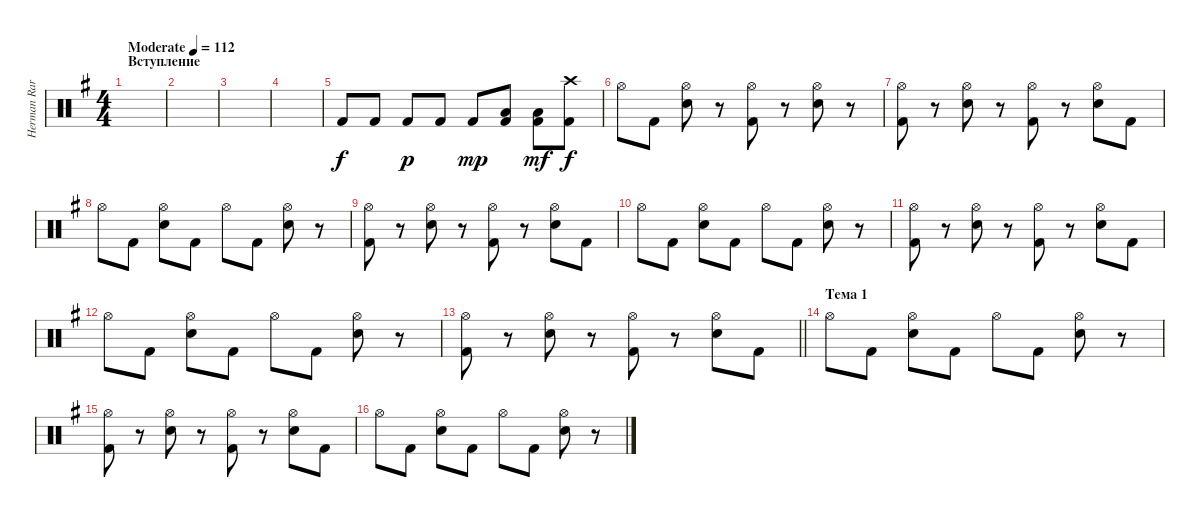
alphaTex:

\track ("Herman Rarebell" "Herman Rar") {instrument percussion}
\staff {score}
\articulation defaults
\ts (4 4)
\section ("" "Вступление")
\tempo (112 "Moderate")
\clef neutral
\ks eminor
|
|
|
|
"Kick (hit) 2".8 "Kick (hit) 2".8 "Kick (hit) 2".8{dy p} "Kick (hit) 2".8 "Kick (hit) 2".8{dy mp} ("Low Tom (hit)" "Kick (hit) 2").8 ("Low Tom (hit)" "Kick (hit) 2").8{dy mf} ("Crash high (hit)" "Kick (hit) 2").8{dy f} |
"Hi-Hat (open)".8 "Kick (hit) 2".8 ("Hi-Hat (open)" "Electric Snare (hit)").8 r.8 ("Hi-Hat (open)" "Kick (hit) 2").8 r.8 ("Hi-Hat (open)" "Electric Snare (hit)").8 r.8 |
("Hi-Hat (open)" "Kick (hit) 2").8 r.8 ("Hi-Hat (open)" "Electric Snare (hit)").8 r.8 ("Hi-Hat (open)" "Kick (hit) 2").8 r.8 ("Hi-Hat (open)" "Electric Snare (hit)").8 "Kick (hit) 2".8 |
"Hi-Hat (open)".8 "Kick (hit) 2".8 ("Hi-Hat (open)" "Electric Snare (hit)").8 "Kick (hit) 2".8 "Hi-Hat (open)".8 "Kick (hit) 2".8 ("Hi-Hat (open)" "Electric Snare (hit)").8 r.8 |
("Hi-Hat (open)" "Kick (hit) 2").8 r.8 ("Hi-Hat (open)" "Electric Snare (hit)").8 r.8 ("Hi-Hat (open)" "Kick (hit) 2").8 r.8 ("Hi-Hat (open)" "Electric Snare (hit)").8 "Kick (hit) 2".8 |
"Hi-Hat (open)".8 "Kick (hit) 2".8 ("Hi-Hat (open)" "Electric Snare (hit)").8 "Kick (hit) 2".8 "Hi-Hat (open)".8 "Kick (hit) 2".8 ("Hi-Hat (open)" "Electric Snare (hit)").8 r.8 |
("Hi-Hat (open)" "Kick (hit) 2").8 r.8 ("Hi-Hat (open)" "Electric Snare (hit)").8 r.8 ("Hi-Hat (open)" "Kick (hit) 2").8 r.8 ("Hi-Hat (open)" "Electric Snare (hit)").8 "Kick (hit) 2".8 |
"Hi-Hat (open)".8 "Kick (hit) 2".8 ("Hi-Hat (open)" "Electric Snare (hit)").8 "Kick (hit) 2".8 "Hi-Hat (open)".8 "Kick (hit) 2".8 ("Hi-Hat (open)" "Electric Snare (hit)").8 r.8 |
\barLineRight lightlight
("Hi-Hat (open)" "Kick (hit) 2").8 r.8 ("Hi-Hat (open)" "Electric Snare (hit)").8 r.8 ("Hi-Hat (open)" "Kick (hit) 2").8 r.8 ("Hi-Hat (open)" "Electric Snare (hit)").8 "Kick (hit) 2".8 |
\section ("" "Тема 1")
"Hi-Hat (open)".8 "Kick (hit) 2".8 ("Hi-Hat (open)" "Electric Snare (hit)").8 "Kick (hit) 2".8 "Hi-Hat (open)".8 "Kick (hit) 2".8 ("Hi-Hat (open)" "Electric Snare (hit)").8 r.8 |
("Hi-Hat (open)" "Kick (hit) 2").8 r.8 ("Hi-Hat (open)" "Electric Snare (hit)").8 r.8 ("Hi-Hat (open)" "Kick (hit) 2").8 r.8 ("Hi-Hat (open)" "Electric Snare (hit)").8 "Kick (hit) 2".8 |
"Hi-Hat (open)".8 "Kick (hit) 2".8 ("Hi-Hat (open)" "Electric Snare (hit)").8 "Kick (hit) 2".8 "Hi-Hat (open)".8 "Kick (hit) 2".8 ("Hi-Hat (open)" "Electric Snare (hit)").8 r.8
